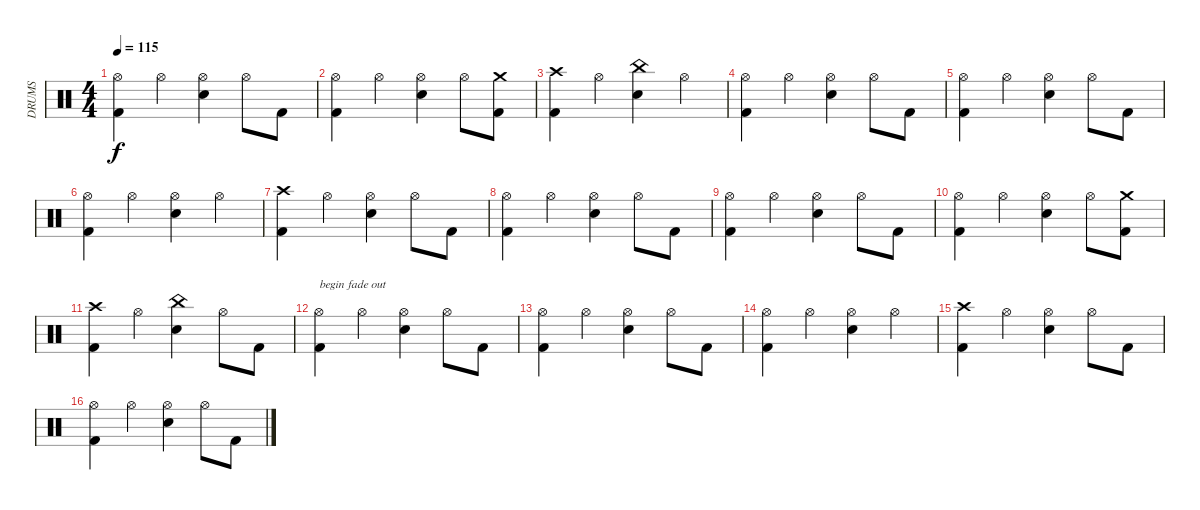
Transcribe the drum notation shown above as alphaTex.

\track ("DRUMS" "DRUMS") {instrument percussion}
\staff {score}
\articulation defaults
\ts (4 4)
\tempo 115
\clef neutral
\ks c
("Hi-Hat (open)" "Kick (hit) 2").4{dy f} "Hi-Hat (open)".4 ("Hi-Hat (open)" "Snare (hit) 2").4 "Hi-Hat (open)".8 "Kick (hit) 2".8 |
("Hi-Hat (open)" "Kick (hit) 2").4 "Hi-Hat (open)".4 ("Hi-Hat (open)" "Snare (hit) 2").4 "Hi-Hat (open)".8 ("Crash medium (hit)" "Kick (hit) 2").8 |
("Crash high (hit)" "Kick (hit) 2").4 "Hi-Hat (open)".4 ("China (hit)" "Snare (hit) 2").4 "Hi-Hat (open)".4 |
("Hi-Hat (open)" "Kick (hit) 2").4 "Hi-Hat (open)".4 ("Hi-Hat (open)" "Snare (hit) 2").4 "Hi-Hat (open)".8 "Kick (hit) 2".8 |
("Hi-Hat (open)" "Kick (hit) 2").4 "Hi-Hat (open)".4 ("Hi-Hat (open)" "Snare (hit) 2").4 "Hi-Hat (open)".8 "Kick (hit) 2".8 |
("Hi-Hat (open)" "Kick (hit) 2").4 "Hi-Hat (open)".4 ("Hi-Hat (open)" "Snare (hit) 2").4 "Hi-Hat (open)".4 |
("Crash high (hit)" "Kick (hit) 2").4 "Hi-Hat (open)".4 ("Hi-Hat (open)" "Snare (hit) 2").4 "Hi-Hat (open)".8 "Kick (hit) 2".8 |
("Hi-Hat (open)" "Kick (hit) 2").4 "Hi-Hat (open)".4 ("Hi-Hat (open)" "Snare (hit) 2").4 "Hi-Hat (open)".8 "Kick (hit) 2".8 |
("Hi-Hat (open)" "Kick (hit) 2").4 "Hi-Hat (open)".4 ("Hi-Hat (open)" "Snare (hit) 2").4 "Hi-Hat (open)".8 "Kick (hit) 2".8 |
("Hi-Hat (open)" "Kick (hit) 2").4 "Hi-Hat (open)".4 ("Hi-Hat (open)" "Snare (hit) 2").4 "Hi-Hat (open)".8 ("Crash medium (hit)" "Kick (hit) 2").8 |
("Crash high (hit)" "Kick (hit) 2").4 "Hi-Hat (open)".4 ("China (hit)" "Snare (hit) 2").4 "Hi-Hat (open)".8 "Kick (hit) 2".8 |
("Hi-Hat (open)" "Kick (hit) 2").4{txt "begin fade out" volume 4} "Hi-Hat (open)".4 ("Hi-Hat (open)" "Snare (hit) 2").4 "Hi-Hat (open)".8 "Kick (hit) 2".8 |
("Hi-Hat (open)" "Kick (hit) 2").4 "Hi-Hat (open)".4 ("Hi-Hat (open)" "Snare (hit) 2").4 "Hi-Hat (open)".8 "Kick (hit) 2".8 |
("Hi-Hat (open)" "Kick (hit) 2").4 "Hi-Hat (open)".4 ("Hi-Hat (open)" "Snare (hit) 2").4 "Hi-Hat (open)".4 |
("Crash high (hit)" "Kick (hit) 2").4 "Hi-Hat (open)".4 ("Hi-Hat (open)" "Snare (hit) 2").4 "Hi-Hat (open)".8 "Kick (hit) 2".8 |
("Hi-Hat (open)" "Kick (hit) 2").4{volume 1} "Hi-Hat (open)".4 ("Hi-Hat (open)" "Snare (hit) 2").4 "Hi-Hat (open)".8 "Kick (hit) 2".8
